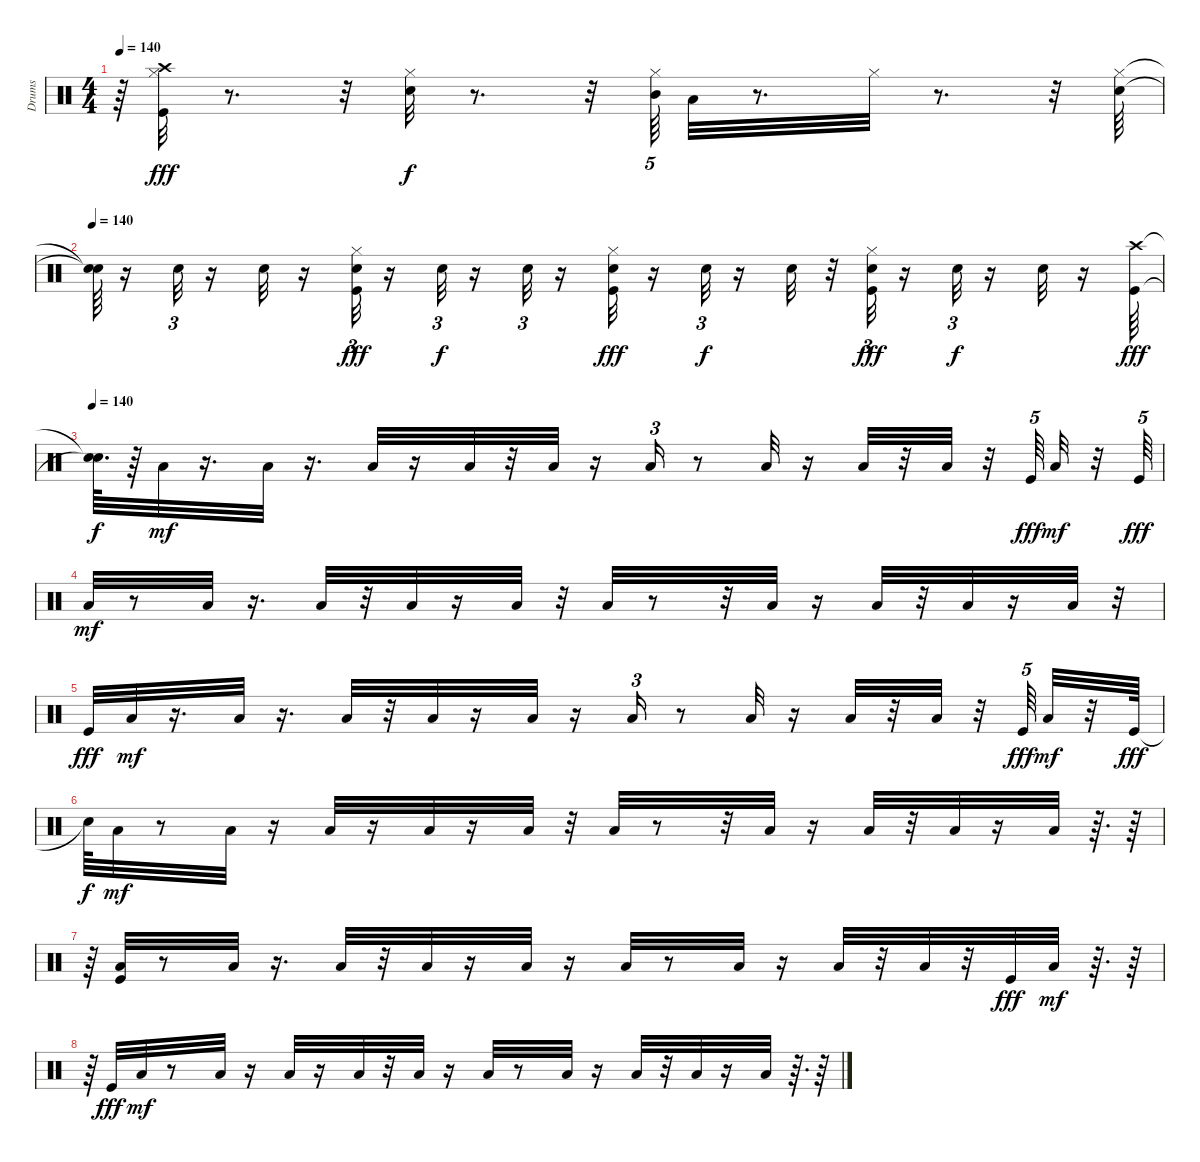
\track ("Drums" "Drums") {instrument percussion}
\staff {score}
\articulation defaults
\ts (4 4)
\tempo 140
\clef neutral
\ks c
r.64{dy f} ("Crash high (hit)" "Hi-Hat (closed)" "Kick (hit)").32{dy fff} r.8{d} r.32 ("Electric Snare (hit)" "Hi-Hat (closed)").32{dy f} r.8{d} r.32 ("Mid Tom (hit)" "Hi-Hat (closed)").64{tu (5 4)} "Low Tom (hit)".32 r.8{d} "Hi-Hat (closed)".32 r.8{d} r.32 ("Electric Snare (hit)" "Hi-Hat (closed)").64 |
\tempo 140
("Snare (hit)"{t} "Snare (hit)"{t}).64 r.16 "Electric Snare (hit)".32{tu (3 2)} r.16 "Electric Snare (hit)".32 r.16 ("Kick (hit)" "Electric Snare (hit)" "Hi-Hat (closed)").32{tu (3 2) dy fff} r.16 "Electric Snare (hit)".32{tu (3 2) dy f} r.16 "Electric Snare (hit)".32{tu (3 2)} r.16 ("Electric Snare (hit)" "Hi-Hat (closed)" "Kick (hit)").32{dy fff} r.16 "Electric Snare (hit)".32{tu (3 2) dy f} r.16 "Electric Snare (hit)".32 r.32 ("Kick (hit)" "Electric Snare (hit)" "Hi-Hat (closed)").32{tu (3 2) dy fff} r.16 "Electric Snare (hit)".32{tu (3 2) dy f} r.16 "Electric Snare (hit)".32 r.16 ("Crash high (hit)" "Kick (hit)").64{dy fff} |
\tempo 140
("Snare (hit)"{t} "Snare (hit)"{t}).64{d dy f} r.64 "Low Floor Tom (hit)".32{dy mf} r.16{d} "Low Floor Tom (hit)".32 r.16{d} "Low Floor Tom (hit)".32 r.16 "Low Floor Tom (hit)".32 r.32 "Low Floor Tom (hit)".32 r.16 "Low Floor Tom (hit)".16{tu (3 2)} r.8 "Low Floor Tom (hit)".32 r.16 "Low Floor Tom (hit)".32 r.32 "Low Floor Tom (hit)".32 r.32 "Kick (hit)".64{tu (5 4) dy fff} "Low Floor Tom (hit)".32{dy mf} r.32 "Kick (hit)".64{tu (5 4) dy fff} |
"Low Floor Tom (hit)".32{dy mf} r.8 "Low Floor Tom (hit)".32 r.16{d} "Low Floor Tom (hit)".32 r.32 "Low Floor Tom (hit)".32 r.16 "Low Floor Tom (hit)".32 r.32 "Low Floor Tom (hit)".32 r.8 r.32 "Low Floor Tom (hit)".32 r.16 "Low Floor Tom (hit)".32 r.32 "Low Floor Tom (hit)".32 r.16 "Low Floor Tom (hit)".32 r.32 |
"Kick (hit)".32{dy fff} "Low Floor Tom (hit)".32{dy mf} r.16{d} "Low Floor Tom (hit)".32 r.16{d} "Low Floor Tom (hit)".32 r.32 "Low Floor Tom (hit)".32 r.16 "Low Floor Tom (hit)".32 r.16 "Low Floor Tom (hit)".16{tu (3 2)} r.8 "Low Floor Tom (hit)".32 r.16 "Low Floor Tom (hit)".32 r.32 "Low Floor Tom (hit)".32 r.32 "Kick (hit)".64{tu (5 4) dy fff} "Low Floor Tom (hit)".32{dy mf} r.32 "Kick (hit)".64{dy fff} |
"Snare (hit)"{t}.64{dy f} "Low Floor Tom (hit)".32{dy mf} r.8 "Low Floor Tom (hit)".32 r.16 "Low Floor Tom (hit)".32 r.16 "Low Floor Tom (hit)".32 r.16 "Low Floor Tom (hit)".32 r.32 "Low Floor Tom (hit)".32 r.8 r.32 "Low Floor Tom (hit)".32 r.16 "Low Floor Tom (hit)".32 r.32 "Low Floor Tom (hit)".32 r.16 "Low Floor Tom (hit)".32 r.64{d} r.64 |
r.64 ("Kick (hit)" "Low Floor Tom (hit)").32 r.8 "Low Floor Tom (hit)".32 r.16{d} "Low Floor Tom (hit)".32 r.32 "Low Floor Tom (hit)".32 r.16 "Low Floor Tom (hit)".32 r.16 "Low Floor Tom (hit)".32 r.8 "Low Floor Tom (hit)".32 r.16 "Low Floor Tom (hit)".32 r.32 "Low Floor Tom (hit)".32 r.32 "Kick (hit)".32{dy fff} "Low Floor Tom (hit)".32{dy mf} r.64{d} r.64 |
r.64 "Kick (hit)".32{dy fff} "Low Floor Tom (hit)".32{dy mf} r.8 "Low Floor Tom (hit)".32 r.16 "Low Floor Tom (hit)".32 r.16 "Low Floor Tom (hit)".32 r.32 "Low Floor Tom (hit)".32 r.16 "Low Floor Tom (hit)".32 r.8 "Low Floor Tom (hit)".32 r.16 "Low Floor Tom (hit)".32 r.32 "Low Floor Tom (hit)".32 r.16 "Low Floor Tom (hit)".32 r.64{d} r.64
